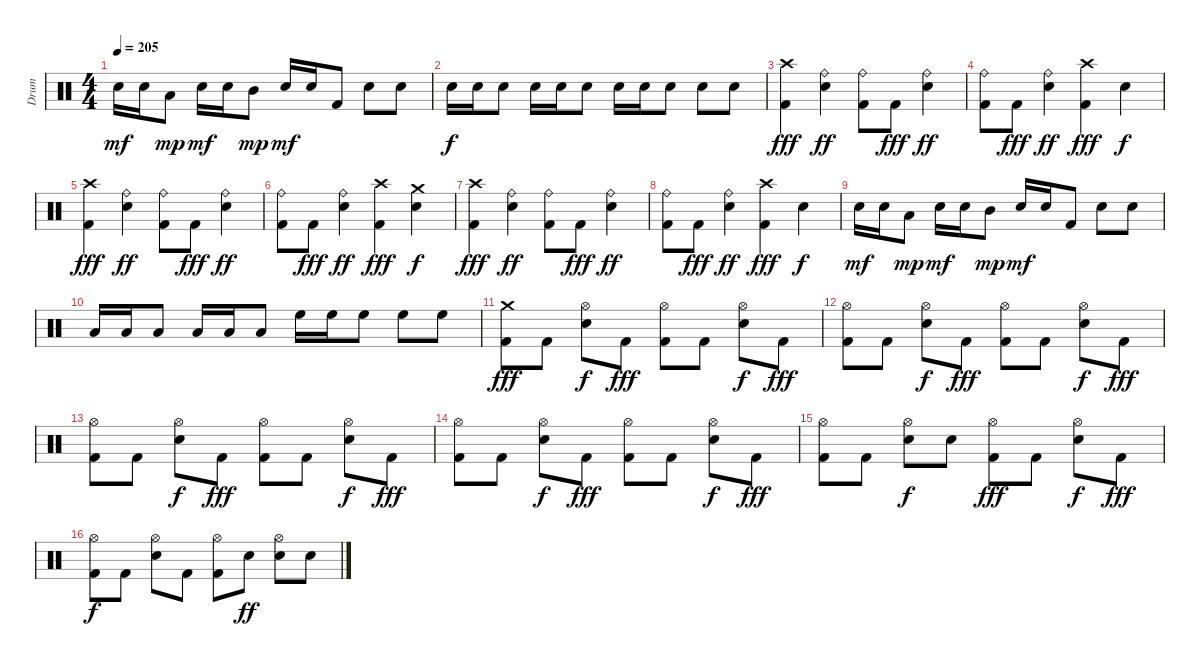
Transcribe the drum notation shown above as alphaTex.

\track ("Drum" "Drum") {instrument percussion}
\staff {score}
\articulation defaults
\ts (4 4)
\tempo 205
\clef neutral
\ks c "Electric Snare (hit)".16{dy mf} "Electric Snare (hit)".16 "Low Tom (hit)".8{dy mp} "Electric Snare (hit)".16{dy mf} "Electric Snare (hit)".16 "Mid Tom (hit)".8{dy mp} "Electric Snare (hit)".16{dy mf} "Electric Snare (hit)".16 "Kick (hit) 2".8 "Electric Snare (hit)".8 "Electric Snare (hit)".8
|
"Electric Snare (hit)".16{dy f} "Electric Snare (hit)".16 "Electric Snare (hit)".8 "Electric Snare (hit)".16 "Electric Snare (hit)".16 "Electric Snare (hit)".8 "Electric Snare (hit)".16 "Electric Snare (hit)".16 "Electric Snare (hit)".8 "Electric Snare (hit)".8 "Electric Snare (hit)".8 |
("Kick (hit) 2" "Crash high (hit)").4{dy fff} ("Electric Snare (hit)" "Ride (bell)").4{dy ff} ("Kick (hit) 2" "Ride (bell)").8 "Kick (hit) 2".8{dy fff} ("Electric Snare (hit)" "Ride (bell)").4{dy ff} |
("Kick (hit) 2" "Ride (bell)").8 "Kick (hit) 2".8{dy fff} ("Electric Snare (hit)" "Ride (bell)").4{dy ff} ("Kick (hit) 2" "Crash high (hit)").4{dy fff} "Electric Snare (hit)".4{dy f} |
("Kick (hit) 2" "Crash high (hit)").4{dy fff} ("Electric Snare (hit)" "Ride (bell)").4{dy ff} ("Kick (hit) 2" "Ride (bell)").8 "Kick (hit) 2".8{dy fff} ("Electric Snare (hit)" "Ride (bell)").4{dy ff} |
("Kick (hit) 2" "Ride (bell)").8 "Kick (hit) 2".8{dy fff} ("Electric Snare (hit)" "Ride (bell)").4{dy ff} ("Kick (hit) 2" "Crash high (hit)").4{dy fff} ("Electric Snare (hit)" "Crash medium (hit)").4{dy f} |
("Kick (hit) 2" "Crash high (hit)").4{dy fff} ("Electric Snare (hit)" "Ride (bell)").4{dy ff} ("Kick (hit) 2" "Ride (bell)").8 "Kick (hit) 2".8{dy fff} ("Electric Snare (hit)" "Ride (bell)").4{dy ff} |
("Kick (hit) 2" "Ride (bell)").8 "Kick (hit) 2".8{dy fff} ("Electric Snare (hit)" "Ride (bell)").4{dy ff} ("Kick (hit) 2" "Crash high (hit)").4{dy fff} "Electric Snare (hit)".4{dy f} |
"Electric Snare (hit)".16{dy mf} "Electric Snare (hit)".16 "Low Tom (hit)".8{dy mp} "Electric Snare (hit)".16{dy mf} "Electric Snare (hit)".16 "Mid Tom (hit)".8{dy mp} "Electric Snare (hit)".16{dy mf} "Electric Snare (hit)".16 "Kick (hit) 2".8 "Electric Snare (hit)".8 "Electric Snare (hit)".8 |
"Low Tom (hit)".16 "Low Tom (hit)".16 "Low Tom (hit)".8 "Low Tom (hit)".16 "Low Tom (hit)".16 "Low Tom (hit)".8 "High Floor Tom (hit)".16 "High Floor Tom (hit)".16 "High Floor Tom (hit)".8 "High Floor Tom (hit)".8 "High Floor Tom (hit)".8 |
("Kick (hit) 2" "Crash medium (hit)").8{dy fff} "Kick (hit) 2".8 ("Electric Snare (hit)" "Hi-Hat (open)").8{dy f} "Kick (hit) 2".8{dy fff} ("Kick (hit) 2" "Hi-Hat (open)").8 "Kick (hit) 2".8 ("Electric Snare (hit)" "Hi-Hat (open)").8{dy f} "Kick (hit) 2".8{dy fff} |
("Kick (hit) 2" "Hi-Hat (open)").8 "Kick (hit) 2".8 ("Electric Snare (hit)" "Hi-Hat (open)").8{dy f} "Kick (hit) 2".8{dy fff} ("Kick (hit) 2" "Hi-Hat (open)").8 "Kick (hit) 2".8 ("Electric Snare (hit)" "Hi-Hat (open)").8{dy f} "Kick (hit) 2".8{dy fff} |
("Kick (hit) 2" "Hi-Hat (open)").8 "Kick (hit) 2".8 ("Electric Snare (hit)" "Hi-Hat (open)").8{dy f} "Kick (hit) 2".8{dy fff} ("Kick (hit) 2" "Hi-Hat (open)").8 "Kick (hit) 2".8 ("Electric Snare (hit)" "Hi-Hat (open)").8{dy f} "Kick (hit) 2".8{dy fff} |
("Kick (hit) 2" "Hi-Hat (open)").8 "Kick (hit) 2".8 ("Electric Snare (hit)" "Hi-Hat (open)").8{dy f} "Kick (hit) 2".8{dy fff} ("Kick (hit) 2" "Hi-Hat (open)").8 "Kick (hit) 2".8 ("Electric Snare (hit)" "Hi-Hat (open)").8{dy f} "Kick (hit) 2".8{dy fff} |
("Kick (hit) 2" "Hi-Hat (open)").8 "Kick (hit) 2".8 ("Electric Snare (hit)" "Hi-Hat (open)").8{dy f} "Electric Snare (hit)".8 ("Kick (hit) 2" "Hi-Hat (open)").8{dy fff} "Kick (hit) 2".8 ("Electric Snare (hit)" "Hi-Hat (open)").8{dy f} "Kick (hit) 2".8{dy fff} |
("Kick (hit) 2" "Hi-Hat (open)").8{dy f} "Kick (hit) 2".8 ("Electric Snare (hit)" "Hi-Hat (open)").8 "Kick (hit) 2".8 ("Kick (hit) 2" "Hi-Hat (open)").8 "Electric Snare (hit)".8{dy ff} ("Electric Snare (hit)" "Hi-Hat (open)").8 "Electric Snare (hit)".8
